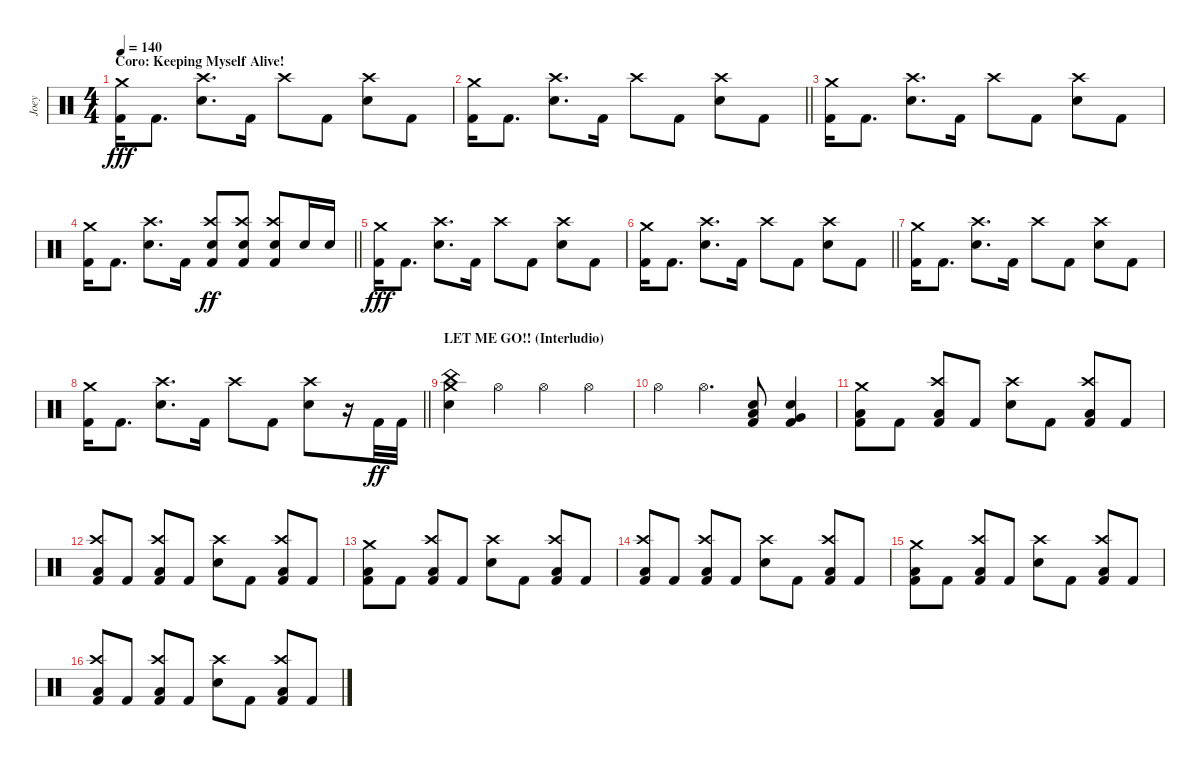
\track ("Joey" "Joey") {instrument percussion}
\staff {score}
\articulation defaults
\ts (4 4)
\section ("" "Coro: Keeping Myself Alive! ")
\tempo 140
\clef neutral
\ks c
("Crash medium (hit)" "Kick (hit) 2").16{dy fff} "Kick (hit) 2".8{d} ("Crash high (hit)" "Electric Snare (hit)").8{d} "Kick (hit) 2".16 "Crash high (hit)".8 "Kick (hit) 2".8 ("Crash high (hit)" "Electric Snare (hit)").8 "Kick (hit) 2".8 |
\barLineRight lightlight
("Crash medium (hit)" "Kick (hit) 2").16 "Kick (hit) 2".8{d} ("Crash high (hit)" "Electric Snare (hit)").8{d} "Kick (hit) 2".16 "Crash high (hit)".8 "Kick (hit) 2".8 ("Crash high (hit)" "Electric Snare (hit)").8 "Kick (hit) 2".8 |
("Crash medium (hit)" "Kick (hit) 2").16 "Kick (hit) 2".8{d} ("Crash high (hit)" "Electric Snare (hit)").8{d} "Kick (hit) 2".16 "Crash high (hit)".8 "Kick (hit) 2".8 ("Crash high (hit)" "Electric Snare (hit)").8 "Kick (hit) 2".8 |
\barLineRight lightlight
("Crash medium (hit)" "Kick (hit) 2").16 "Kick (hit) 2".8{d} ("Crash high (hit)" "Electric Snare (hit)").8{d} "Kick (hit) 2".16 ("Crash high (hit)" "Electric Snare (hit)" "Kick (hit) 2").8{dy ff} ("Crash high (hit)" "Electric Snare (hit)" "Kick (hit) 2").8 ("Crash high (hit)" "Electric Snare (hit)" "Kick (hit) 2").8 "Electric Snare (hit)".16 "Electric Snare (hit)".16 |
("Crash medium (hit)" "Kick (hit) 2").16{dy fff} "Kick (hit) 2".8{d} ("Crash high (hit)" "Electric Snare (hit)").8{d} "Kick (hit) 2".16 "Crash high (hit)".8 "Kick (hit) 2".8 ("Crash high (hit)" "Electric Snare (hit)").8 "Kick (hit) 2".8 |
\barLineRight lightlight
("Crash medium (hit)" "Kick (hit) 2").16 "Kick (hit) 2".8{d} ("Crash high (hit)" "Electric Snare (hit)").8{d} "Kick (hit) 2".16 "Crash high (hit)".8 "Kick (hit) 2".8 ("Crash high (hit)" "Electric Snare (hit)").8 "Kick (hit) 2".8 |
("Crash medium (hit)" "Kick (hit) 2").16 "Kick (hit) 2".8{d} ("Crash high (hit)" "Electric Snare (hit)").8{d} "Kick (hit) 2".16 "Crash high (hit)".8 "Kick (hit) 2".8 ("Crash high (hit)" "Electric Snare (hit)").8 "Kick (hit) 2".8 |
\barLineRight lightlight
("Crash medium (hit)" "Kick (hit) 2").16 "Kick (hit) 2".8{d} ("Crash high (hit)" "Electric Snare (hit)").8{d} "Kick (hit) 2".16 "Crash high (hit)".8 "Kick (hit) 2".8 ("Crash high (hit)" "Electric Snare (hit)").8 r.16 "Kick (hit) 2".32{dy ff} "Kick (hit) 2".32 |
\section ("" "LET ME GO!! (Interludio)")
("Crash medium (hit)" "China (hit)" "Electric Snare (hit)").4 "Hi-Hat (open)".4 "Hi-Hat (open)".4 "Hi-Hat (open)".4 |
"Hi-Hat (open)".4 "Hi-Hat (open)".4{d} ("Low Tom (hit)" "Electric Snare (hit)" "Kick (hit) 2").8 ("Very Low Tom (hit)" "Electric Snare (hit)" "Kick (hit) 2").4 |
("Crash medium (hit)" "Low Tom (hit)" "Kick (hit) 2").8 "Kick (hit) 2".8 ("Crash high (hit)" "Low Tom (hit)" "Kick (hit) 2").8 "Kick (hit) 2".8 ("Crash high (hit)" "Electric Snare (hit)").8 "Kick (hit) 2".8 ("Crash high (hit)" "Low Tom (hit)" "Kick (hit) 2").8 "Kick (hit) 2".8 |
("Crash high (hit)" "Low Tom (hit)" "Kick (hit) 2").8 "Kick (hit) 2".8 ("Crash high (hit)" "Low Tom (hit)" "Kick (hit) 2").8 "Kick (hit) 2".8 ("Crash high (hit)" "Electric Snare (hit)").8 "Kick (hit) 2".8 ("Crash high (hit)" "Low Tom (hit)" "Kick (hit) 2").8 "Kick (hit) 2".8 |
("Crash medium (hit)" "Low Tom (hit)" "Kick (hit) 2").8 "Kick (hit) 2".8 ("Crash high (hit)" "Low Tom (hit)" "Kick (hit) 2").8 "Kick (hit) 2".8 ("Crash high (hit)" "Electric Snare (hit)").8 "Kick (hit) 2".8 ("Crash high (hit)" "Low Tom (hit)" "Kick (hit) 2").8 "Kick (hit) 2".8 |
("Crash high (hit)" "Low Tom (hit)" "Kick (hit) 2").8 "Kick (hit) 2".8 ("Crash high (hit)" "Low Tom (hit)" "Kick (hit) 2").8 "Kick (hit) 2".8 ("Crash high (hit)" "Electric Snare (hit)").8 "Kick (hit) 2".8 ("Crash high (hit)" "Low Tom (hit)" "Kick (hit) 2").8 "Kick (hit) 2".8 |
("Crash medium (hit)" "Low Tom (hit)" "Kick (hit) 2").8 "Kick (hit) 2".8 ("Crash high (hit)" "Low Tom (hit)" "Kick (hit) 2").8 "Kick (hit) 2".8 ("Crash high (hit)" "Electric Snare (hit)").8 "Kick (hit) 2".8 ("Crash high (hit)" "Low Tom (hit)" "Kick (hit) 2").8 "Kick (hit) 2".8 |
("Crash high (hit)" "Low Tom (hit)" "Kick (hit) 2").8 "Kick (hit) 2".8 ("Crash high (hit)" "Low Tom (hit)" "Kick (hit) 2").8 "Kick (hit) 2".8 ("Crash high (hit)" "Electric Snare (hit)").8 "Kick (hit) 2".8 ("Crash high (hit)" "Low Tom (hit)" "Kick (hit) 2").8 "Kick (hit) 2".8
